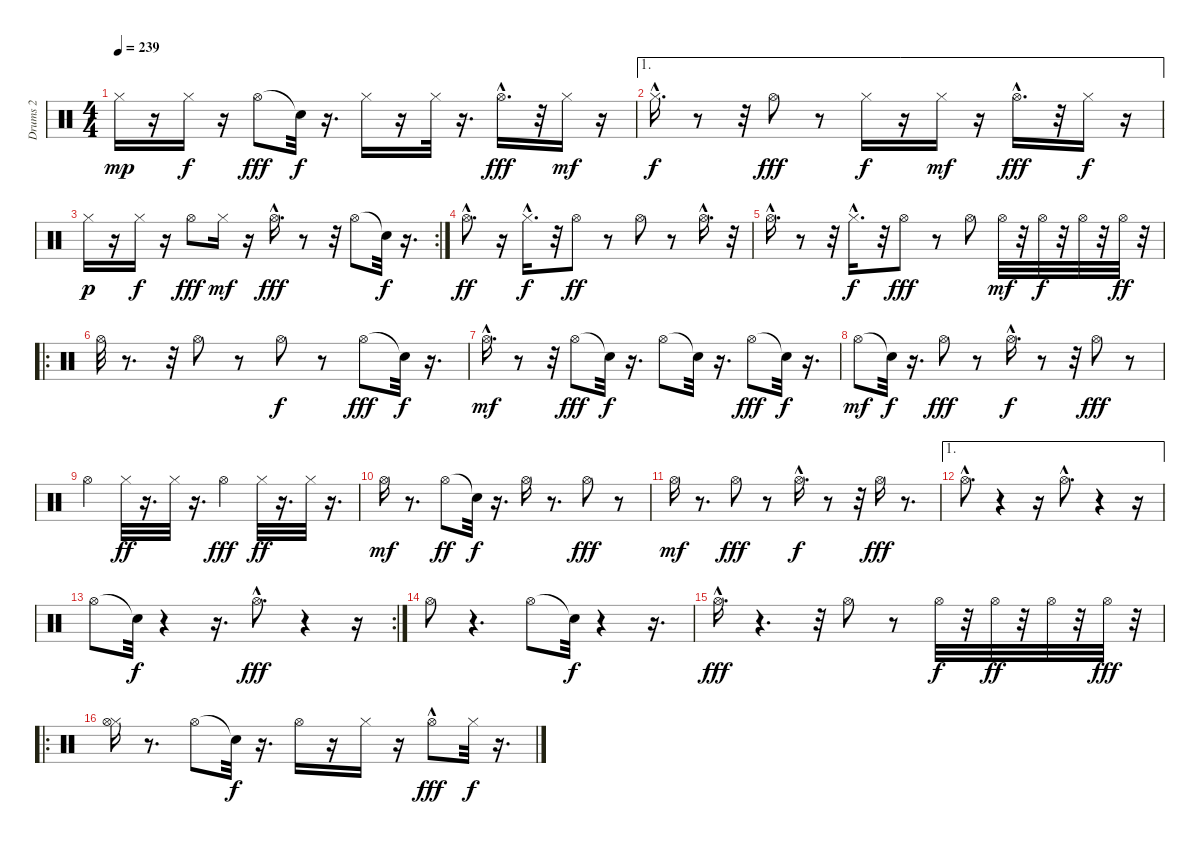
\track ("Drums 2" "Drums 2") {instrument percussion}
\staff {score}
\articulation defaults
\ts (4 4)
\tempo 239
\clef neutral
\ks c "Hi-Hat (closed)".16{dy mp}
r.16 "Hi-Hat (closed)".16{dy f} r.16 "Hi-Hat (open)".8{dy fff} "Snare (hit)"{t}.32{dy f} r.16{d} "Hi-Hat (closed)".16 r.16 "Hi-Hat (closed)".32 r.16{d} "Hi-Hat (open)"{hac}.16{d dy fff} r.32 "Hi-Hat (closed)".16{dy mf} r.16 |
\ae 1 "Hi-Hat (closed)"{hac}.16{d dy f}
r.8 r.32 "Hi-Hat (open)".8{dy fff} r.8 "Hi-Hat (closed)".16{dy f} r.16 "Hi-Hat (closed)".16{dy mf} r.16 "Hi-Hat (open)"{hac}.16{d dy fff} r.32 "Hi-Hat (closed)".16{dy f} r.16 |
\rc 2 "Hi-Hat (closed)".16{dy p}
r.16 "Hi-Hat (closed)".16{dy f} r.16 "Hi-Hat (open)".8{dy fff} "Hi-Hat (closed)".16{dy mf} r.16 "Hi-Hat (open)"{hac}.16{d dy fff} r.8 r.32 "Hi-Hat (open)".8 "Snare (hit)"{t}.32{dy f} r.16{d} |
"Hi-Hat (open)"{hac}.8{d dy ff} r.16 "Hi-Hat (closed)"{hac}.16{d dy f} r.32 "Hi-Hat (open)".8{dy ff} r.8 "Hi-Hat (open)".8 r.8 "Hi-Hat (open)"{hac}.16{d} r.32 |
"Hi-Hat (open)"{hac}.16{d} r.8 r.32 "Hi-Hat (closed)"{hac}.16{d dy f} r.32 "Hi-Hat (open)".8{dy fff} r.8 "Hi-Hat (open)".8 "Hi-Hat (open)".32{dy mf} r.32 "Hi-Hat (open)".32{dy f} r.32 "Hi-Hat (open)".32 r.32 "Hi-Hat (open)".32{dy ff} r.32 |
\ro "Hi-Hat (open)".32
r.8{d} r.32 "Hi-Hat (open)".8 r.8 "Hi-Hat (open)".8{dy f} r.8 "Hi-Hat (open)".8{dy fff} "Snare (hit)"{t}.32{dy f} r.16{d} |
"Hi-Hat (open)"{hac}.16{d dy mf} r.8 r.32 "Hi-Hat (open)".8{dy fff} "Snare (hit)"{t}.32{dy f} r.16{d} "Hi-Hat (open)".8 "Snare (hit)"{t}.32 r.16{d} "Hi-Hat (open)".8{dy fff} "Snare (hit)"{t}.32{dy f} r.16{d} |
"Hi-Hat (open)".8{dy mf} "Snare (hit)"{t}.32{dy f} r.16{d} "Hi-Hat (open)".8{dy fff} r.8 "Hi-Hat (open)"{hac}.16{d dy f} r.8 r.32 "Hi-Hat (open)".8{dy fff} r.8 |
"Hi-Hat (open)".4 "Hi-Hat (closed)".32{dy ff} r.16{d} "Hi-Hat (closed)".32 r.16{d} "Hi-Hat (open)".4{dy fff} "Hi-Hat (closed)".32{dy ff} r.16{d} "Hi-Hat (closed)".32 r.16{d} |
"Hi-Hat (open)".16{dy mf} r.8{d} "Hi-Hat (open)".8{dy ff} "Snare (hit)"{t}.32{dy f} r.16{d} "Hi-Hat (open)".16 r.8{d} "Hi-Hat (open)".8{dy fff} r.8 |
"Hi-Hat (open)".16{dy mf} r.8{d} "Hi-Hat (open)".8{dy fff} r.8 "Hi-Hat (open)"{hac}.16{d dy f} r.8 r.32 "Hi-Hat (open)".16{dy fff} r.8{d} |
\ae 1 "Hi-Hat (open)"{hac}.8{d}
r.4 r.16 "Hi-Hat (open)"{hac}.8{d} r.4 r.16 |
\rc 2 "Hi-Hat (open)".8 "Snare (hit)"{t}.32{dy f}
r.4 r.16{d} "Hi-Hat (open)"{hac}.8{d dy fff} r.4 r.16 |
"Hi-Hat (open)".8 r.4{d} "Hi-Hat (open)".8 "Snare (hit)"{t}.32{dy f} r.4 r.16{d} |
"Hi-Hat (open)"{hac}.16{d dy fff} r.4{d} r.32 "Hi-Hat (open)".8 r.8 "Hi-Hat (open)".32{dy f} r.32 "Hi-Hat (open)".32{dy ff} r.32 "Hi-Hat (open)".32 r.32 "Hi-Hat (open)".32{dy fff} r.32 |
\ro
("Hi-Hat (closed)" "Hi-Hat (open)").16 r.8{d} "Hi-Hat (open)".8 "Snare (hit)"{t}.32{dy f} r.16{d} "Hi-Hat (open)".16 r.16 "Hi-Hat (closed)".16 r.16 "Hi-Hat (open)"{hac}.8{dy fff} "Hi-Hat (closed)".32{dy f} r.16{d}
